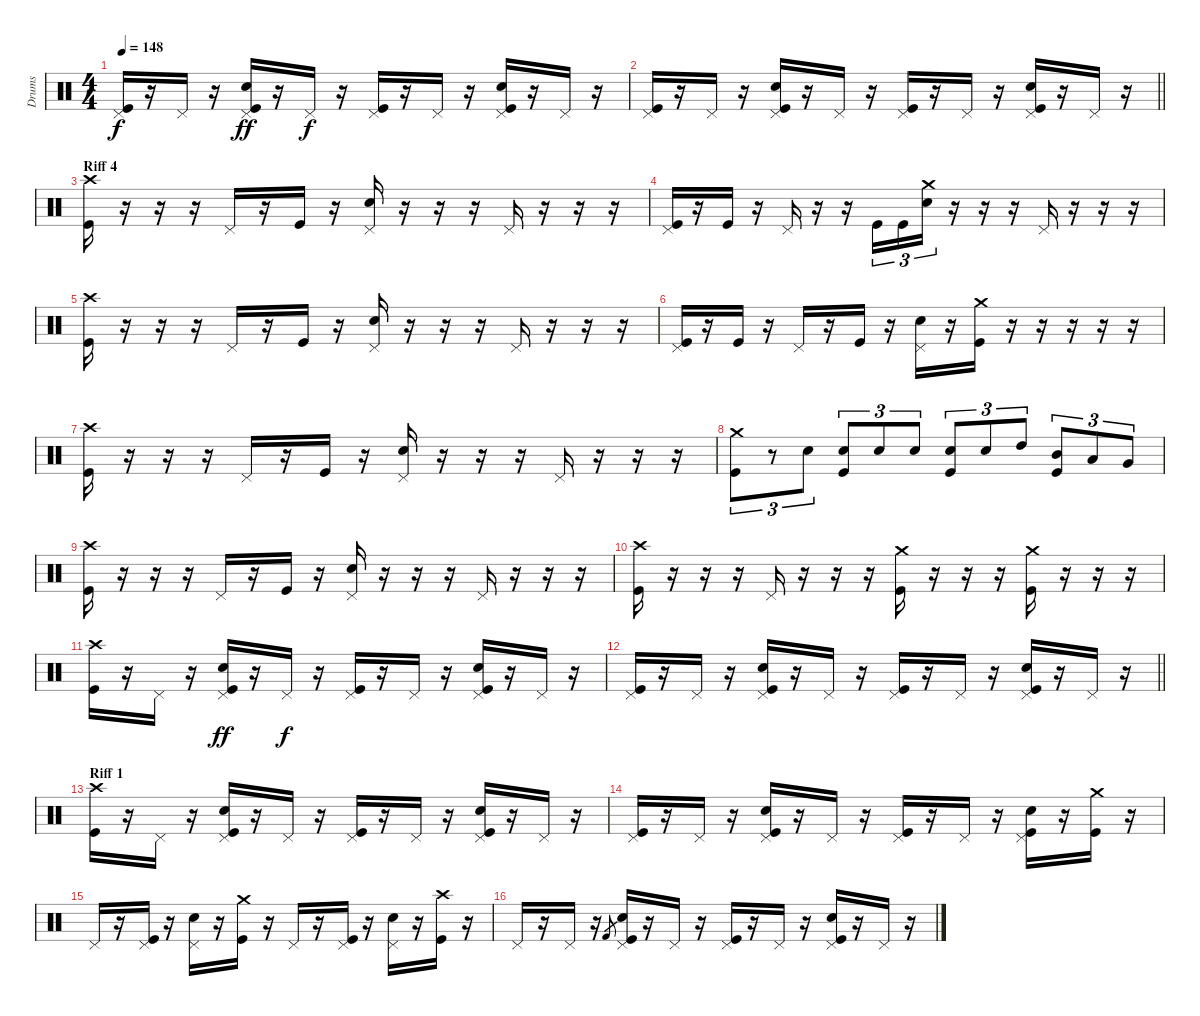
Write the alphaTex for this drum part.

\track ("Drums" "Drums") {instrument percussion}
\staff {score}
\articulation defaults
\ts (4 4)
\tempo 148
\clef neutral
\ks c
("Pedal Hi-Hat (hit)" "Kick (hit)").16{dy f} r.16 "Pedal Hi-Hat (hit)".16 r.16 ("Pedal Hi-Hat (hit)" "Electric Snare (hit)" "Kick (hit)").16{dy ff} r.16 "Pedal Hi-Hat (hit)".16{dy f} r.16 ("Pedal Hi-Hat (hit)" "Kick (hit)").16 r.16 "Pedal Hi-Hat (hit)".16 r.16 ("Pedal Hi-Hat (hit)" "Electric Snare (hit)" "Kick (hit)").16 r.16 "Pedal Hi-Hat (hit)".16 r.16 |
\barLineRight lightlight
("Pedal Hi-Hat (hit)" "Kick (hit)").16 r.16 "Pedal Hi-Hat (hit)".16 r.16 ("Pedal Hi-Hat (hit)" "Electric Snare (hit)" "Kick (hit)").16 r.16 "Pedal Hi-Hat (hit)".16 r.16 ("Pedal Hi-Hat (hit)" "Kick (hit)").16 r.16 "Pedal Hi-Hat (hit)".16 r.16 ("Pedal Hi-Hat (hit)" "Electric Snare (hit)" "Kick (hit)").16 r.16 "Pedal Hi-Hat (hit)".16 r.16 |
\section ("" "Riff 4")
("Crash high (hit)" "Kick (hit)").16 r.16 r.16 r.16 "Pedal Hi-Hat (hit)".16 r.16 "Kick (hit)".16 r.16 ("Pedal Hi-Hat (hit)" "Electric Snare (hit)").16 r.16 r.16 r.16 "Pedal Hi-Hat (hit)".16 r.16 r.16 r.16 |
("Pedal Hi-Hat (hit)" "Kick (hit)").16 r.16 "Kick (hit)".16 r.16 "Pedal Hi-Hat (hit)".16 r.16 r.16 "Kick (hit)".16{tu (3 2)} "Kick (hit)".16{tu (3 2)} ("Crash medium (hit)" "Electric Snare (hit)").16{tu (3 2)} r.16 r.16 r.16 "Pedal Hi-Hat (hit)".16 r.16 r.16 r.16 |
("Crash high (hit)" "Kick (hit)").16 r.16 r.16 r.16 "Pedal Hi-Hat (hit)".16 r.16 "Kick (hit)".16 r.16 ("Pedal Hi-Hat (hit)" "Electric Snare (hit)").16 r.16 r.16 r.16 "Pedal Hi-Hat (hit)".16 r.16 r.16 r.16 |
("Pedal Hi-Hat (hit)" "Kick (hit)").16 r.16 "Kick (hit)".16 r.16 "Pedal Hi-Hat (hit)".16 r.16 "Kick (hit)".16 r.16 ("Pedal Hi-Hat (hit)" "Electric Snare (hit)").16 r.16 ("Crash medium (hit)" "Kick (hit)").16 r.16 r.16 r.16 r.16 r.16 |
("Crash high (hit)" "Kick (hit)").16 r.16 r.16 r.16 "Pedal Hi-Hat (hit)".16 r.16 "Kick (hit)".16 r.16 ("Pedal Hi-Hat (hit)" "Electric Snare (hit)").16 r.16 r.16 r.16 "Pedal Hi-Hat (hit)".16 r.16 r.16 r.16 |
("Crash medium (hit)" "Kick (hit)").8{tu (3 2)} r.8{tu (3 2)} "Electric Snare (hit)".8{tu (3 2)} ("Electric Snare (hit)" "Kick (hit)").8{tu (3 2)} "Electric Snare (hit)".8{tu (3 2)} "Electric Snare (hit)".8{tu (3 2)} ("Electric Snare (hit)" "Kick (hit)").8{tu (3 2)} "Electric Snare (hit)".8{tu (3 2)} "High Tom (hit)".8{tu (3 2)} ("Mid Tom (hit)" "Kick (hit)").8{tu (3 2)} "Low Tom (hit)".8{tu (3 2)} "Very Low Tom (hit)".8{tu (3 2)} |
("Crash high (hit)" "Kick (hit)").16 r.16 r.16 r.16 "Pedal Hi-Hat (hit)".16 r.16 "Kick (hit)".16 r.16 ("Pedal Hi-Hat (hit)" "Electric Snare (hit)").16 r.16 r.16 r.16 "Pedal Hi-Hat (hit)".16 r.16 r.16 r.16 |
("Crash high (hit)" "Kick (hit)").16 r.16 r.16 r.16 "Pedal Hi-Hat (hit)".16 r.16 r.16 r.16 ("Crash medium (hit)" "Kick (hit)").16 r.16 r.16 r.16 ("Crash medium (hit)" "Kick (hit)").16 r.16 r.16 r.16 |
("Crash high (hit)" "Kick (hit)").16 r.16 "Pedal Hi-Hat (hit)".16 r.16 ("Pedal Hi-Hat (hit)" "Electric Snare (hit)" "Kick (hit)").16{dy ff} r.16 "Pedal Hi-Hat (hit)".16{dy f} r.16 ("Pedal Hi-Hat (hit)" "Kick (hit)").16 r.16 "Pedal Hi-Hat (hit)".16 r.16 ("Pedal Hi-Hat (hit)" "Electric Snare (hit)" "Kick (hit)").16 r.16 "Pedal Hi-Hat (hit)".16 r.16 |
\barLineRight lightlight
("Pedal Hi-Hat (hit)" "Kick (hit)").16 r.16 "Pedal Hi-Hat (hit)".16 r.16 ("Pedal Hi-Hat (hit)" "Electric Snare (hit)" "Kick (hit)").16 r.16 "Pedal Hi-Hat (hit)".16 r.16 ("Pedal Hi-Hat (hit)" "Kick (hit)").16 r.16 "Pedal Hi-Hat (hit)".16 r.16 ("Pedal Hi-Hat (hit)" "Electric Snare (hit)" "Kick (hit)").16 r.16 "Pedal Hi-Hat (hit)".16 r.16 |
\section ("" "Riff 1")
("Crash high (hit)" "Kick (hit)").16 r.16 "Pedal Hi-Hat (hit)".16 r.16 ("Pedal Hi-Hat (hit)" "Electric Snare (hit)" "Kick (hit)").16 r.16 "Pedal Hi-Hat (hit)".16 r.16 ("Pedal Hi-Hat (hit)" "Kick (hit)").16 r.16 "Pedal Hi-Hat (hit)".16 r.16 ("Pedal Hi-Hat (hit)" "Electric Snare (hit)" "Kick (hit)").16 r.16 "Pedal Hi-Hat (hit)".16 r.16 |
("Pedal Hi-Hat (hit)" "Kick (hit)").16 r.16 "Pedal Hi-Hat (hit)".16 r.16 ("Pedal Hi-Hat (hit)" "Electric Snare (hit)" "Kick (hit)").16 r.16 "Pedal Hi-Hat (hit)".16 r.16 ("Pedal Hi-Hat (hit)" "Kick (hit)").16 r.16 "Pedal Hi-Hat (hit)".16 r.16 ("Pedal Hi-Hat (hit)" "Electric Snare (hit)" "Kick (hit)").16 r.16 ("Crash medium (hit)" "Kick (hit)").16 r.16 |
"Pedal Hi-Hat (hit)".16 r.16 ("Pedal Hi-Hat (hit)" "Kick (hit)").16 r.16 ("Pedal Hi-Hat (hit)" "Electric Snare (hit)").16 r.16 ("Crash medium (hit)" "Kick (hit)").16 r.16 "Pedal Hi-Hat (hit)".16 r.16 ("Pedal Hi-Hat (hit)" "Kick (hit)").16 r.16 ("Pedal Hi-Hat (hit)" "Electric Snare (hit)").16 r.16 ("Crash high (hit)" "Kick (hit)").16 r.16 |
"Pedal Hi-Hat (hit)".16 r.16 "Pedal Hi-Hat (hit)".16 r.16 "Kick (hit) 2".8{gr} ("Pedal Hi-Hat (hit)" "Electric Snare (hit)" "Kick (hit)").16 r.16 "Pedal Hi-Hat (hit)".16 r.16 ("Pedal Hi-Hat (hit)" "Kick (hit)").16 r.16 "Pedal Hi-Hat (hit)".16 r.16 ("Pedal Hi-Hat (hit)" "Electric Snare (hit)" "Kick (hit)").16 r.16 "Pedal Hi-Hat (hit)".16 r.16
